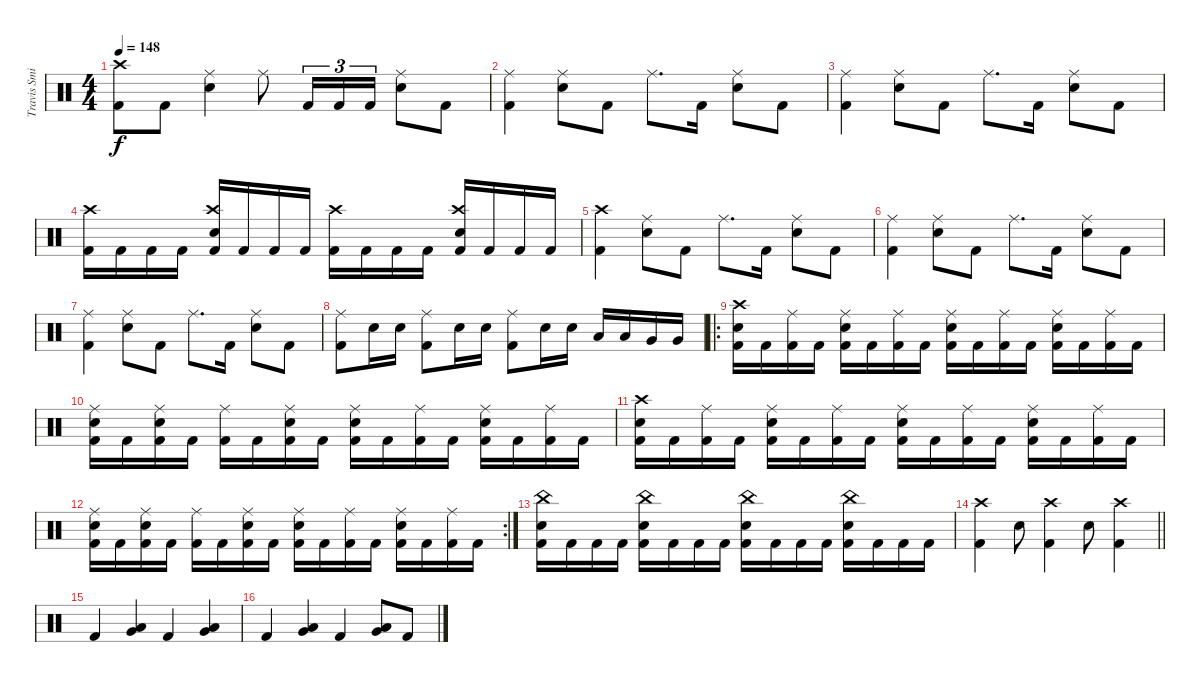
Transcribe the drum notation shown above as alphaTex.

\track ("Travis Smith" "Travis Smi") {instrument percussion}
\staff {score}
\articulation defaults
\ts (4 4)
\tempo 148
\clef neutral
\ks c
("Kick (hit) 2" "Crash high (hit)").8{dy f} "Kick (hit) 2".8 ("Snare (hit) 2" "Ride (middle)").4 "Ride (middle)".8 "Kick (hit) 2".16{tu (3 2)} "Kick (hit) 2".16{tu (3 2)} "Kick (hit) 2".16{tu (3 2)} ("Snare (hit) 2" "Ride (middle)").8 "Kick (hit) 2".8 |
("Kick (hit) 2" "Ride (middle)").4 ("Snare (hit) 2" "Ride (middle)").8 "Kick (hit) 2".8 "Ride (middle)".8{d} "Kick (hit) 2".16 ("Snare (hit) 2" "Ride (middle)").8 "Kick (hit) 2".8 |
("Kick (hit) 2" "Ride (middle)").4 ("Snare (hit) 2" "Ride (middle)").8 "Kick (hit) 2".8 "Ride (middle)".8{d} "Kick (hit) 2".16 ("Snare (hit) 2" "Ride (middle)").8 "Kick (hit) 2".8 |
("Kick (hit) 2" "Crash high (hit)").16 "Kick (hit) 2".16 "Kick (hit) 2".16 "Kick (hit) 2".16 ("Kick (hit) 2" "Crash high (hit)" "Snare (hit) 2").16 "Kick (hit) 2".16 "Kick (hit) 2".16 "Kick (hit) 2".16 ("Kick (hit) 2" "Crash high (hit)").16 "Kick (hit) 2".16 "Kick (hit) 2".16 "Kick (hit) 2".16 ("Kick (hit) 2" "Crash high (hit)" "Snare (hit) 2").16 "Kick (hit) 2".16 "Kick (hit) 2".16 "Kick (hit) 2".16 |
("Kick (hit) 2" "Crash high (hit)").4 ("Snare (hit) 2" "Ride (middle)").8 "Kick (hit) 2".8 "Ride (middle)".8{d} "Kick (hit) 2".16 ("Snare (hit) 2" "Ride (middle)").8 "Kick (hit) 2".8 |
("Kick (hit) 2" "Ride (middle)").4 ("Snare (hit) 2" "Ride (middle)").8 "Kick (hit) 2".8 "Ride (middle)".8{d} "Kick (hit) 2".16 ("Snare (hit) 2" "Ride (middle)").8 "Kick (hit) 2".8 |
("Kick (hit) 2" "Ride (middle)").4 ("Snare (hit) 2" "Ride (middle)").8 "Kick (hit) 2".8 "Ride (middle)".8{d} "Kick (hit) 2".16 ("Snare (hit) 2" "Ride (middle)").8 "Kick (hit) 2".8 |
("Kick (hit) 2" "Ride (middle)").8 "Snare (hit) 2".16 "Snare (hit) 2".16 ("Kick (hit) 2" "Ride (middle)").8 "Snare (hit) 2".16 "Snare (hit) 2".16 ("Kick (hit) 2" "Ride (middle)").8 "Snare (hit) 2".16 "Snare (hit) 2".16 "Low Tom (hit)".16 "Low Tom (hit)".16 "Very Low Tom (hit)".16 "Very Low Tom (hit)".16 |
\ro
("Kick (hit) 2" "Crash high (hit)" "Snare (hit) 2").16 "Kick (hit) 2".16 ("Kick (hit) 2" "Ride (middle)").16 "Kick (hit) 2".16 ("Kick (hit) 2" "Ride (middle)" "Snare (hit) 2").16 "Kick (hit) 2".16 ("Kick (hit) 2" "Ride (middle)").16 "Kick (hit) 2".16 ("Kick (hit) 2" "Ride (middle)" "Snare (hit) 2").16 "Kick (hit) 2".16 ("Kick (hit) 2" "Ride (middle)").16 "Kick (hit) 2".16 ("Kick (hit) 2" "Ride (middle)" "Snare (hit) 2").16 "Kick (hit) 2".16 ("Kick (hit) 2" "Ride (middle)").16 "Kick (hit) 2".16 |
("Kick (hit) 2" "Ride (middle)" "Snare (hit) 2").16 "Kick (hit) 2".16 ("Kick (hit) 2" "Ride (middle)" "Snare (hit) 2").16 "Kick (hit) 2".16 ("Kick (hit) 2" "Ride (middle)").16 "Kick (hit) 2".16 ("Kick (hit) 2" "Ride (middle)" "Snare (hit) 2").16 "Kick (hit) 2".16 ("Kick (hit) 2" "Ride (middle)" "Snare (hit) 2").16 "Kick (hit) 2".16 ("Kick (hit) 2" "Ride (middle)").16 "Kick (hit) 2".16 ("Kick (hit) 2" "Ride (middle)" "Snare (hit) 2").16 "Kick (hit) 2".16 ("Kick (hit) 2" "Ride (middle)").16 "Kick (hit) 2".16 |
("Kick (hit) 2" "Crash high (hit)" "Snare (hit) 2").16 "Kick (hit) 2".16 ("Kick (hit) 2" "Ride (middle)").16 "Kick (hit) 2".16 ("Kick (hit) 2" "Ride (middle)" "Snare (hit) 2").16 "Kick (hit) 2".16 ("Kick (hit) 2" "Ride (middle)").16 "Kick (hit) 2".16 ("Kick (hit) 2" "Ride (middle)" "Snare (hit) 2").16 "Kick (hit) 2".16 ("Kick (hit) 2" "Ride (middle)").16 "Kick (hit) 2".16 ("Kick (hit) 2" "Ride (middle)" "Snare (hit) 2").16 "Kick (hit) 2".16 ("Kick (hit) 2" "Ride (middle)").16 "Kick (hit) 2".16 |
\rc 2
("Kick (hit) 2" "Ride (middle)" "Snare (hit) 2").16 "Kick (hit) 2".16 ("Kick (hit) 2" "Ride (middle)" "Snare (hit) 2").16 "Kick (hit) 2".16 ("Kick (hit) 2" "Ride (middle)").16 "Kick (hit) 2".16 ("Kick (hit) 2" "Ride (middle)" "Snare (hit) 2").16 "Kick (hit) 2".16 ("Kick (hit) 2" "Ride (middle)" "Snare (hit) 2").16 "Kick (hit) 2".16 ("Kick (hit) 2" "Ride (middle)").16 "Kick (hit) 2".16 ("Kick (hit) 2" "Ride (middle)" "Snare (hit) 2").16 "Kick (hit) 2".16 ("Kick (hit) 2" "Ride (middle)").16 "Kick (hit) 2".16 |
("Kick (hit) 2" "China (hit)" "Snare (hit) 2").16 "Kick (hit) 2".16 "Kick (hit) 2".16 "Kick (hit) 2".16 ("Kick (hit) 2" "China (hit)" "Snare (hit) 2").16 "Kick (hit) 2".16 "Kick (hit) 2".16 "Kick (hit) 2".16 ("Kick (hit) 2" "China (hit)" "Snare (hit) 2").16 "Kick (hit) 2".16 "Kick (hit) 2".16 "Kick (hit) 2".16 ("Kick (hit) 2" "China (hit)" "Snare (hit) 2").16 "Kick (hit) 2".16 "Kick (hit) 2".16 "Kick (hit) 2".16 |
\barLineRight lightlight
("Kick (hit) 2" "Crash high (hit)").4 "Snare (hit) 2".8 ("Kick (hit) 2" "Crash high (hit)").4 "Snare (hit) 2".8 ("Kick (hit) 2" "Crash high (hit)").4 |
"Kick (hit) 2".4 ("Low Tom (hit)" "Very Low Tom (hit)").4 "Kick (hit) 2".4 ("Low Tom (hit)" "Very Low Tom (hit)").4 |
"Kick (hit) 2".4 ("Low Tom (hit)" "Very Low Tom (hit)").4 "Kick (hit) 2".4 ("Low Tom (hit)" "Very Low Tom (hit)").8 "Kick (hit) 2".8
